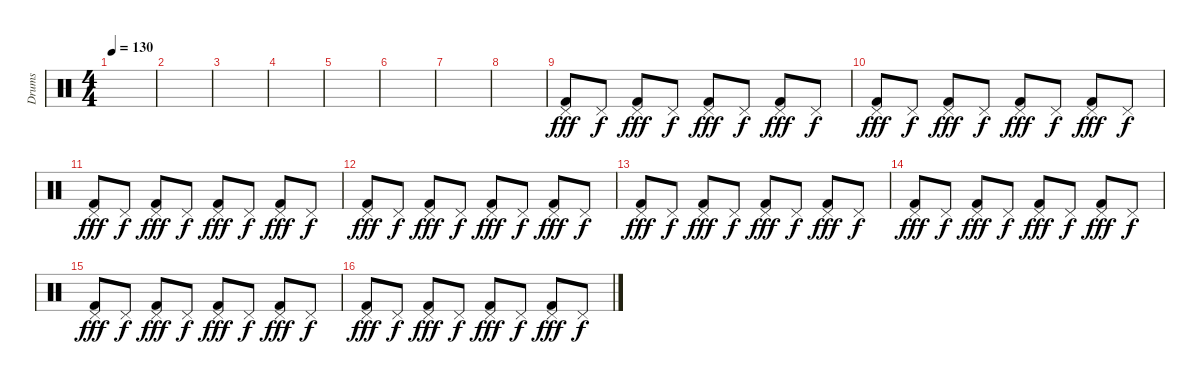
\track ("Drums" "Drums") {instrument percussion}
\staff {score}
\articulation defaults
\ts (4 4)
\tempo 130
\clef neutral
\ks c
|
|
|
|
|
|
|
|
("Pedal Hi-Hat (hit)" "Kick (hit) 2").8{dy fff} "Pedal Hi-Hat (hit)".8{dy f} ("Pedal Hi-Hat (hit)" "Kick (hit) 2").8{dy fff} "Pedal Hi-Hat (hit)".8{dy f} ("Pedal Hi-Hat (hit)" "Kick (hit) 2").8{dy fff} "Pedal Hi-Hat (hit)".8{dy f} ("Pedal Hi-Hat (hit)" "Kick (hit) 2").8{dy fff} "Pedal Hi-Hat (hit)".8{dy f} |
("Pedal Hi-Hat (hit)" "Kick (hit) 2").8{dy fff} "Pedal Hi-Hat (hit)".8{dy f} ("Pedal Hi-Hat (hit)" "Kick (hit) 2").8{dy fff} "Pedal Hi-Hat (hit)".8{dy f} ("Pedal Hi-Hat (hit)" "Kick (hit) 2").8{dy fff} "Pedal Hi-Hat (hit)".8{dy f} ("Pedal Hi-Hat (hit)" "Kick (hit) 2").8{dy fff} "Pedal Hi-Hat (hit)".8{dy f} |
("Pedal Hi-Hat (hit)" "Kick (hit) 2").8{dy fff} "Pedal Hi-Hat (hit)".8{dy f} ("Pedal Hi-Hat (hit)" "Kick (hit) 2").8{dy fff} "Pedal Hi-Hat (hit)".8{dy f} ("Pedal Hi-Hat (hit)" "Kick (hit) 2").8{dy fff} "Pedal Hi-Hat (hit)".8{dy f} ("Pedal Hi-Hat (hit)" "Kick (hit) 2").8{dy fff} "Pedal Hi-Hat (hit)".8{dy f} |
("Pedal Hi-Hat (hit)" "Kick (hit) 2").8{dy fff} "Pedal Hi-Hat (hit)".8{dy f} ("Pedal Hi-Hat (hit)" "Kick (hit) 2").8{dy fff} "Pedal Hi-Hat (hit)".8{dy f} ("Pedal Hi-Hat (hit)" "Kick (hit) 2").8{dy fff} "Pedal Hi-Hat (hit)".8{dy f} ("Pedal Hi-Hat (hit)" "Kick (hit) 2").8{dy fff} "Pedal Hi-Hat (hit)".8{dy f} |
("Pedal Hi-Hat (hit)" "Kick (hit) 2").8{dy fff} "Pedal Hi-Hat (hit)".8{dy f} ("Pedal Hi-Hat (hit)" "Kick (hit) 2").8{dy fff} "Pedal Hi-Hat (hit)".8{dy f} ("Pedal Hi-Hat (hit)" "Kick (hit) 2").8{dy fff} "Pedal Hi-Hat (hit)".8{dy f} ("Pedal Hi-Hat (hit)" "Kick (hit) 2").8{dy fff} "Pedal Hi-Hat (hit)".8{dy f} |
("Pedal Hi-Hat (hit)" "Kick (hit) 2").8{dy fff} "Pedal Hi-Hat (hit)".8{dy f} ("Pedal Hi-Hat (hit)" "Kick (hit) 2").8{dy fff} "Pedal Hi-Hat (hit)".8{dy f} ("Pedal Hi-Hat (hit)" "Kick (hit) 2").8{dy fff} "Pedal Hi-Hat (hit)".8{dy f} ("Pedal Hi-Hat (hit)" "Kick (hit) 2").8{dy fff} "Pedal Hi-Hat (hit)".8{dy f} |
("Pedal Hi-Hat (hit)" "Kick (hit) 2").8{dy fff} "Pedal Hi-Hat (hit)".8{dy f} ("Pedal Hi-Hat (hit)" "Kick (hit) 2").8{dy fff} "Pedal Hi-Hat (hit)".8{dy f} ("Pedal Hi-Hat (hit)" "Kick (hit) 2").8{dy fff} "Pedal Hi-Hat (hit)".8{dy f} ("Pedal Hi-Hat (hit)" "Kick (hit) 2").8{dy fff} "Pedal Hi-Hat (hit)".8{dy f} |
("Pedal Hi-Hat (hit)" "Kick (hit) 2").8{dy fff} "Pedal Hi-Hat (hit)".8{dy f} ("Pedal Hi-Hat (hit)" "Kick (hit) 2").8{dy fff} "Pedal Hi-Hat (hit)".8{dy f} ("Pedal Hi-Hat (hit)" "Kick (hit) 2").8{dy fff} "Pedal Hi-Hat (hit)".8{dy f} ("Pedal Hi-Hat (hit)" "Kick (hit) 2").8{dy fff} "Pedal Hi-Hat (hit)".8{dy f}
